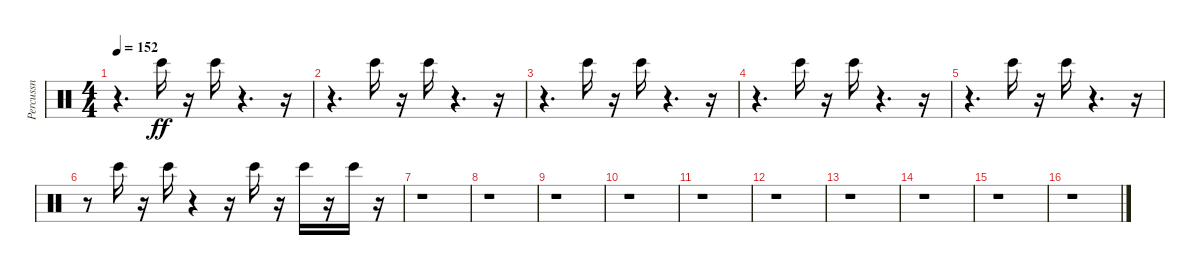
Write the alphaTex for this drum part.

\track ("Percussn" "Percussn") {instrument percussion}
\staff {score}
\articulation defaults
\ts (4 4)
\tempo 152
\clef neutral
\ks c
r.4{d dy ff} "Bongo High (hit)".16{balance 5} r.16 "Bongo High (hit)".16{balance 2} r.4{d} r.16 |
r.4{d} "Bongo High (hit)".16{balance 15} r.16 "Bongo High (hit)".16{balance 7} r.4{d} r.16 |
r.4{d} "Bongo High (hit)".16{balance 16} r.16 "Bongo High (hit)".16{balance 15} r.4{d} r.16 |
r.4{d} "Bongo High (hit)".16{balance 5} r.16 "Bongo High (hit)".16{balance 13} r.4{d} r.16 |
r.4{d} "Bongo High (hit)".16{balance 16} r.16 "Bongo High (hit)".16{balance 8} r.4{d} r.16 |
r.8 "Bongo High (hit)".16{balance 11} r.16 "Bongo High (hit)".16{balance 6} r.4 r.16 "Bongo High (hit)".16{balance 15} r.16 "Bongo High (hit)".16{balance 9} r.16 "Bongo High (hit)".16{balance 6} r.16 |
r.1 |
r.1 |
r.1 |
r.1 |
r.1 |
r.1 |
r.1 |
r.1 |
r.1 |
r.1
